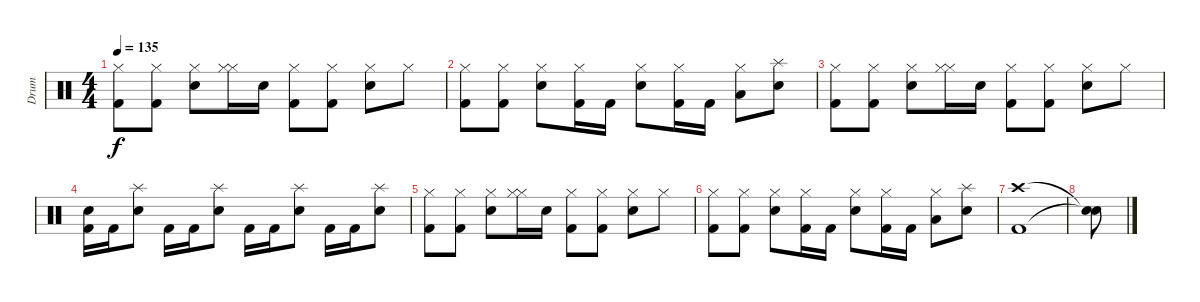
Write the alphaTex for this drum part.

\track ("Drum" "Drum") {instrument percussion}
\staff {score}
\articulation defaults
\ts (4 4)
\tempo 135
\clef neutral
\ks c
("Hi-Hat (closed)" "Kick (hit) 2").8{dy f} ("Hi-Hat (closed)" "Kick (hit) 2").8 ("Hi-Hat (closed)" "Electric Snare (hit)").8 ("Hi-Hat (closed)" "Hi-Hat (closed)").16 "Electric Snare (hit)".16 ("Hi-Hat (closed)" "Kick (hit) 2").8 ("Hi-Hat (closed)" "Kick (hit) 2").8 ("Hi-Hat (closed)" "Electric Snare (hit)").8 "Hi-Hat (closed)".8 |
("Hi-Hat (closed)" "Kick (hit) 2").8 ("Hi-Hat (closed)" "Kick (hit) 2").8 ("Hi-Hat (closed)" "Electric Snare (hit)").8 ("Hi-Hat (closed)" "Kick (hit) 2").16 "Kick (hit) 2".16 ("Hi-Hat (closed)" "Electric Snare (hit)").8 ("Hi-Hat (closed)" "Kick (hit) 2").16 "Kick (hit) 2".16 ("Hi-Hat (closed)" "Low Floor Tom (hit)").8 ("Splash (hit)" "Electric Snare (hit)").8 |
("Hi-Hat (closed)" "Kick (hit) 2").8 ("Hi-Hat (closed)" "Kick (hit) 2").8 ("Hi-Hat (closed)" "Electric Snare (hit)").8 ("Hi-Hat (closed)" "Hi-Hat (closed)").16 "Electric Snare (hit)".16 ("Hi-Hat (closed)" "Kick (hit) 2").8 ("Hi-Hat (closed)" "Kick (hit) 2").8 ("Hi-Hat (closed)" "Electric Snare (hit)").8 "Hi-Hat (closed)".8 |
("Electric Snare (hit)" "Kick (hit) 2").16 "Kick (hit) 2".16 ("Splash (hit)" "Electric Snare (hit)").8 "Kick (hit) 2".16 "Kick (hit) 2".16 ("Splash (hit)" "Electric Snare (hit)").8 "Kick (hit) 2".16 "Kick (hit) 2".16 ("Splash (hit)" "Electric Snare (hit)").8 "Kick (hit) 2".16 "Kick (hit) 2".16 ("Splash (hit)" "Electric Snare (hit)").8 |
("Hi-Hat (closed)" "Kick (hit) 2").8 ("Hi-Hat (closed)" "Kick (hit) 2").8 ("Hi-Hat (closed)" "Electric Snare (hit)").8 ("Hi-Hat (closed)" "Hi-Hat (closed)").16 "Electric Snare (hit)".16 ("Hi-Hat (closed)" "Kick (hit) 2").8 ("Hi-Hat (closed)" "Kick (hit) 2").8 ("Hi-Hat (closed)" "Electric Snare (hit)").8 "Hi-Hat (closed)".8 |
("Hi-Hat (closed)" "Kick (hit) 2").8 ("Hi-Hat (closed)" "Kick (hit) 2").8 ("Hi-Hat (closed)" "Electric Snare (hit)").8 ("Hi-Hat (closed)" "Kick (hit) 2").16 "Kick (hit) 2".16 ("Hi-Hat (closed)" "Electric Snare (hit)").8 ("Hi-Hat (closed)" "Kick (hit) 2").16 "Kick (hit) 2".16 ("Hi-Hat (closed)" "Low Floor Tom (hit)").8 ("Splash (hit)" "Electric Snare (hit)").8 |
("Crash high (hit)" "Kick (hit) 2").1 |
("Snare (hit)"{t} "Snare (hit)"{t}).8
